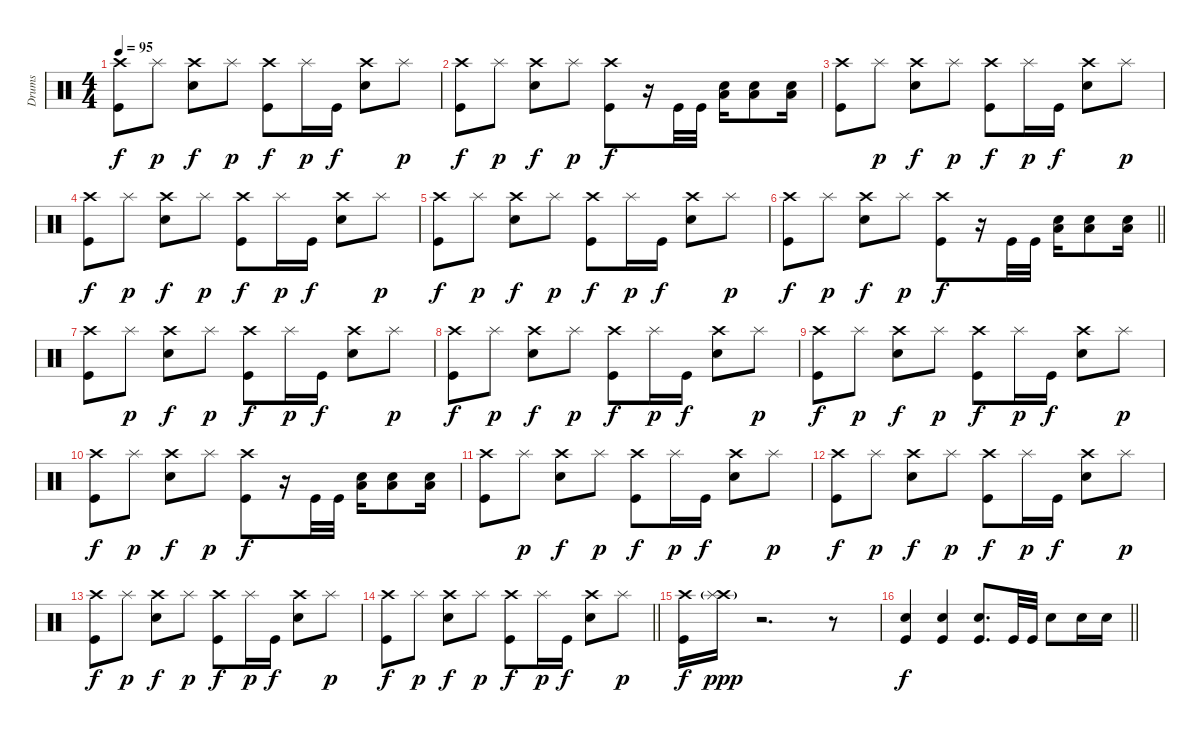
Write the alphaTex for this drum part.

\track ("Drums" "Drums") {instrument percussion}
\staff {score}
\articulation defaults
\ts (4 4)
\tempo 95
\clef neutral
\ks c
("Crash high (hit)" "Kick (hit)").8{dy f} "Splash (hit)".8{dy p} ("Crash high (hit)" "Snare (hit) 2").8{dy f} "Splash (hit)".8{dy p} ("Crash high (hit)" "Kick (hit)").8{dy f} "Splash (hit)".16{dy p} "Kick (hit)".16{dy f} ("Crash high (hit)" "Snare (hit) 2").8 "Splash (hit)".8{dy p} |
("Crash high (hit)" "Kick (hit)").8{dy f} "Splash (hit)".8{dy p} ("Crash high (hit)" "Snare (hit) 2").8{dy f} "Splash (hit)".8{dy p} ("Crash high (hit)" "Kick (hit)").8{dy f} r.16 "Kick (hit)".32 "Kick (hit)".32 ("Snare (hit) 2" "Low Floor Tom (hit)").16 ("Snare (hit) 2" "Low Floor Tom (hit)").8 ("Snare (hit) 2" "Low Floor Tom (hit)").16 |
("Crash high (hit)" "Kick (hit)").8 "Splash (hit)".8{dy p} ("Crash high (hit)" "Snare (hit) 2").8{dy f} "Splash (hit)".8{dy p} ("Crash high (hit)" "Kick (hit)").8{dy f} "Splash (hit)".16{dy p} "Kick (hit)".16{dy f} ("Crash high (hit)" "Snare (hit) 2").8 "Splash (hit)".8{dy p} |
("Crash high (hit)" "Kick (hit)").8{dy f} "Splash (hit)".8{dy p} ("Crash high (hit)" "Snare (hit) 2").8{dy f} "Splash (hit)".8{dy p} ("Crash high (hit)" "Kick (hit)").8{dy f} "Splash (hit)".16{dy p} "Kick (hit)".16{dy f} ("Crash high (hit)" "Snare (hit) 2").8 "Splash (hit)".8{dy p} |
("Crash high (hit)" "Kick (hit)").8{dy f} "Splash (hit)".8{dy p} ("Crash high (hit)" "Snare (hit) 2").8{dy f} "Splash (hit)".8{dy p} ("Crash high (hit)" "Kick (hit)").8{dy f} "Splash (hit)".16{dy p} "Kick (hit)".16{dy f} ("Crash high (hit)" "Snare (hit) 2").8 "Splash (hit)".8{dy p} |
\barLineRight lightlight
("Crash high (hit)" "Kick (hit)").8{dy f} "Splash (hit)".8{dy p} ("Crash high (hit)" "Snare (hit) 2").8{dy f} "Splash (hit)".8{dy p} ("Crash high (hit)" "Kick (hit)").8{dy f} r.16 "Kick (hit)".32 "Kick (hit)".32 ("Snare (hit) 2" "Low Floor Tom (hit)").16 ("Snare (hit) 2" "Low Floor Tom (hit)").8 ("Snare (hit) 2" "Low Floor Tom (hit)").16 |
("Crash high (hit)" "Kick (hit)").8 "Splash (hit)".8{dy p} ("Crash high (hit)" "Snare (hit) 2").8{dy f} "Splash (hit)".8{dy p} ("Crash high (hit)" "Kick (hit)").8{dy f} "Splash (hit)".16{dy p} "Kick (hit)".16{dy f} ("Crash high (hit)" "Snare (hit) 2").8 "Splash (hit)".8{dy p} |
("Crash high (hit)" "Kick (hit)").8{dy f} "Splash (hit)".8{dy p} ("Crash high (hit)" "Snare (hit) 2").8{dy f} "Splash (hit)".8{dy p} ("Crash high (hit)" "Kick (hit)").8{dy f} "Splash (hit)".16{dy p} "Kick (hit)".16{dy f} ("Crash high (hit)" "Snare (hit) 2").8 "Splash (hit)".8{dy p} |
("Crash high (hit)" "Kick (hit)").8{dy f} "Splash (hit)".8{dy p} ("Crash high (hit)" "Snare (hit) 2").8{dy f} "Splash (hit)".8{dy p} ("Crash high (hit)" "Kick (hit)").8{dy f} "Splash (hit)".16{dy p} "Kick (hit)".16{dy f} ("Crash high (hit)" "Snare (hit) 2").8 "Splash (hit)".8{dy p} |
("Crash high (hit)" "Kick (hit)").8{dy f} "Splash (hit)".8{dy p} ("Crash high (hit)" "Snare (hit) 2").8{dy f} "Splash (hit)".8{dy p} ("Crash high (hit)" "Kick (hit)").8{dy f} r.16 "Kick (hit)".32 "Kick (hit)".32 ("Snare (hit) 2" "Low Floor Tom (hit)").16 ("Snare (hit) 2" "Low Floor Tom (hit)").8 ("Snare (hit) 2" "Low Floor Tom (hit)").16 |
("Crash high (hit)" "Kick (hit)").8 "Splash (hit)".8{dy p} ("Crash high (hit)" "Snare (hit) 2").8{dy f} "Splash (hit)".8{dy p} ("Crash high (hit)" "Kick (hit)").8{dy f} "Splash (hit)".16{dy p} "Kick (hit)".16{dy f} ("Crash high (hit)" "Snare (hit) 2").8 "Splash (hit)".8{dy p} |
("Crash high (hit)" "Kick (hit)").8{dy f} "Splash (hit)".8{dy p} ("Crash high (hit)" "Snare (hit) 2").8{dy f} "Splash (hit)".8{dy p} ("Crash high (hit)" "Kick (hit)").8{dy f} "Splash (hit)".16{dy p} "Kick (hit)".16{dy f} ("Crash high (hit)" "Snare (hit) 2").8 "Splash (hit)".8{dy p} |
("Crash high (hit)" "Kick (hit)").8{dy f} "Splash (hit)".8{dy p} ("Crash high (hit)" "Snare (hit) 2").8{dy f} "Splash (hit)".8{dy p} ("Crash high (hit)" "Kick (hit)").8{dy f} "Splash (hit)".16{dy p} "Kick (hit)".16{dy f} ("Crash high (hit)" "Snare (hit) 2").8 "Splash (hit)".8{dy p} |
\barLineRight lightlight
("Crash high (hit)" "Kick (hit)").8{dy f} "Splash (hit)".8{dy p} ("Crash high (hit)" "Snare (hit) 2").8{dy f} "Splash (hit)".8{dy p} ("Crash high (hit)" "Kick (hit)").8{dy f} "Splash (hit)".16{dy p} "Kick (hit)".16{dy f} ("Crash high (hit)" "Snare (hit) 2").8 "Splash (hit)".8{dy p} |
("Crash high (hit)" "Kick (hit)").16{dy f} ("Crash high (hit)"{g} "Splash (hit)"{g}).16{dy ppp} r.2{d} r.8 |
\barLineRight lightlight
("Snare (hit) 2" "Kick (hit)").4{dy f} ("Snare (hit) 2" "Kick (hit)").4 ("Snare (hit) 2" "Kick (hit)").8{d} "Kick (hit)".32 "Kick (hit)".32 "Snare (hit) 2".8 "Snare (hit) 2".16 "Snare (hit) 2".16
